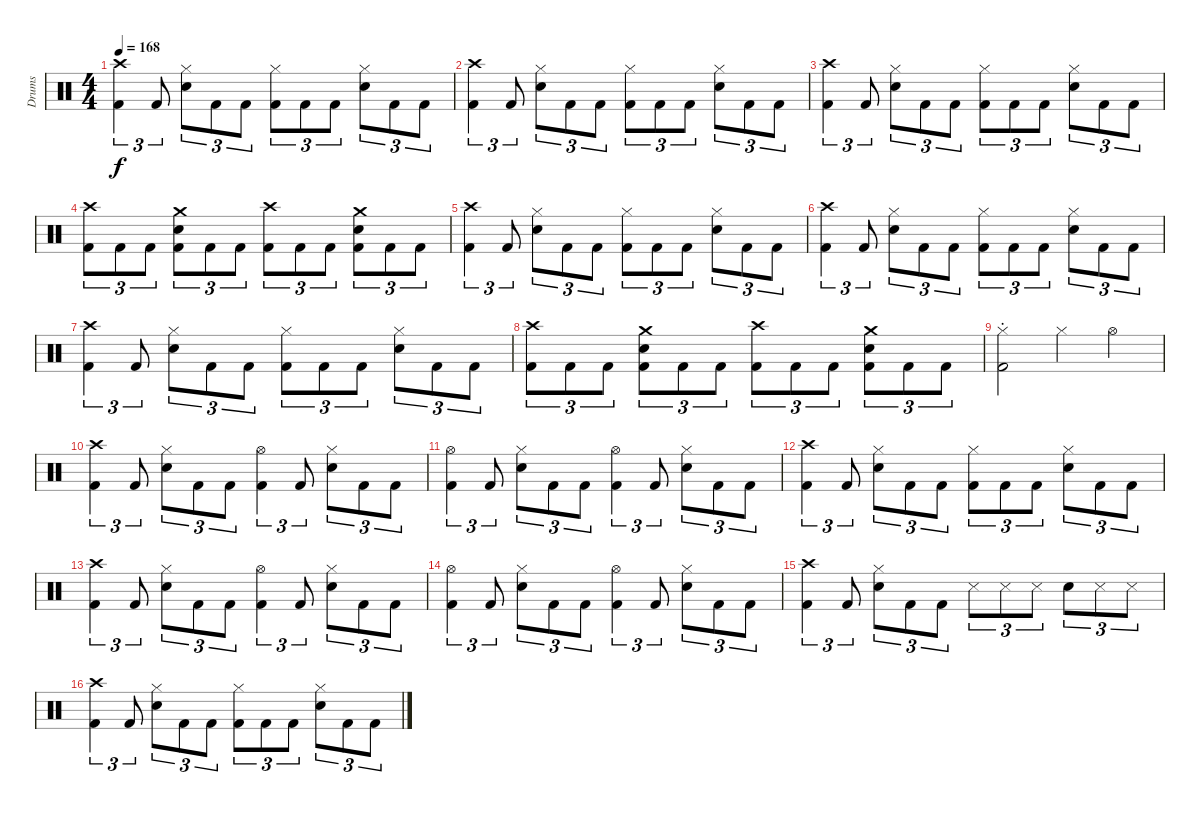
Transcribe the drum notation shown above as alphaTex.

\track ("Drums" "Drums") {instrument percussion}
\staff {score}
\articulation defaults
\ts (4 4)
\tempo 168
\clef neutral
\ks c
("Kick (hit) 2" "Crash high (hit)").4{tu (3 2) dy f} "Kick (hit) 2".8{tu (3 2)} ("Hi-Hat (closed)" "Electric Snare (hit)").8{tu (3 2)} "Kick (hit) 2".8{tu (3 2)} "Kick (hit) 2".8{tu (3 2)} ("Kick (hit) 2" "Hi-Hat (closed)").8{tu (3 2)} "Kick (hit) 2".8{tu (3 2)} "Kick (hit) 2".8{tu (3 2)} ("Hi-Hat (closed)" "Electric Snare (hit)").8{tu (3 2)} "Kick (hit) 2".8{tu (3 2)} "Kick (hit) 2".8{tu (3 2)} |
("Kick (hit) 2" "Crash high (hit)").4{tu (3 2)} "Kick (hit) 2".8{tu (3 2)} ("Hi-Hat (closed)" "Electric Snare (hit)").8{tu (3 2)} "Kick (hit) 2".8{tu (3 2)} "Kick (hit) 2".8{tu (3 2)} ("Kick (hit) 2" "Hi-Hat (closed)").8{tu (3 2)} "Kick (hit) 2".8{tu (3 2)} "Kick (hit) 2".8{tu (3 2)} ("Hi-Hat (closed)" "Electric Snare (hit)").8{tu (3 2)} "Kick (hit) 2".8{tu (3 2)} "Kick (hit) 2".8{tu (3 2)} |
("Kick (hit) 2" "Crash high (hit)").4{tu (3 2)} "Kick (hit) 2".8{tu (3 2)} ("Hi-Hat (closed)" "Electric Snare (hit)").8{tu (3 2)} "Kick (hit) 2".8{tu (3 2)} "Kick (hit) 2".8{tu (3 2)} ("Kick (hit) 2" "Hi-Hat (closed)").8{tu (3 2)} "Kick (hit) 2".8{tu (3 2)} "Kick (hit) 2".8{tu (3 2)} ("Hi-Hat (closed)" "Electric Snare (hit)").8{tu (3 2)} "Kick (hit) 2".8{tu (3 2)} "Kick (hit) 2".8{tu (3 2)} |
("Kick (hit) 2" "Crash high (hit)").8{tu (3 2)} "Kick (hit) 2".8{tu (3 2)} "Kick (hit) 2".8{tu (3 2)} ("Electric Snare (hit)" "Crash medium (hit)" "Kick (hit) 2").8{tu (3 2)} "Kick (hit) 2".8{tu (3 2)} "Kick (hit) 2".8{tu (3 2)} ("Kick (hit) 2" "Crash high (hit)").8{tu (3 2)} "Kick (hit) 2".8{tu (3 2)} "Kick (hit) 2".8{tu (3 2)} ("Electric Snare (hit)" "Crash medium (hit)" "Kick (hit) 2").8{tu (3 2)} "Kick (hit) 2".8{tu (3 2)} "Kick (hit) 2".8{tu (3 2)} |
("Kick (hit) 2" "Crash high (hit)").4{tu (3 2)} "Kick (hit) 2".8{tu (3 2)} ("Hi-Hat (closed)" "Electric Snare (hit)").8{tu (3 2)} "Kick (hit) 2".8{tu (3 2)} "Kick (hit) 2".8{tu (3 2)} ("Kick (hit) 2" "Hi-Hat (closed)").8{tu (3 2)} "Kick (hit) 2".8{tu (3 2)} "Kick (hit) 2".8{tu (3 2)} ("Hi-Hat (closed)" "Electric Snare (hit)").8{tu (3 2)} "Kick (hit) 2".8{tu (3 2)} "Kick (hit) 2".8{tu (3 2)} |
("Kick (hit) 2" "Crash high (hit)").4{tu (3 2)} "Kick (hit) 2".8{tu (3 2)} ("Hi-Hat (closed)" "Electric Snare (hit)").8{tu (3 2)} "Kick (hit) 2".8{tu (3 2)} "Kick (hit) 2".8{tu (3 2)} ("Kick (hit) 2" "Hi-Hat (closed)").8{tu (3 2)} "Kick (hit) 2".8{tu (3 2)} "Kick (hit) 2".8{tu (3 2)} ("Hi-Hat (closed)" "Electric Snare (hit)").8{tu (3 2)} "Kick (hit) 2".8{tu (3 2)} "Kick (hit) 2".8{tu (3 2)} |
("Kick (hit) 2" "Crash high (hit)").4{tu (3 2)} "Kick (hit) 2".8{tu (3 2)} ("Hi-Hat (closed)" "Electric Snare (hit)").8{tu (3 2)} "Kick (hit) 2".8{tu (3 2)} "Kick (hit) 2".8{tu (3 2)} ("Kick (hit) 2" "Hi-Hat (closed)").8{tu (3 2)} "Kick (hit) 2".8{tu (3 2)} "Kick (hit) 2".8{tu (3 2)} ("Hi-Hat (closed)" "Electric Snare (hit)").8{tu (3 2)} "Kick (hit) 2".8{tu (3 2)} "Kick (hit) 2".8{tu (3 2)} |
("Kick (hit) 2" "Crash high (hit)").8{tu (3 2)} "Kick (hit) 2".8{tu (3 2)} "Kick (hit) 2".8{tu (3 2)} ("Electric Snare (hit)" "Crash medium (hit)" "Kick (hit) 2").8{tu (3 2)} "Kick (hit) 2".8{tu (3 2)} "Kick (hit) 2".8{tu (3 2)} ("Kick (hit) 2" "Crash high (hit)").8{tu (3 2)} "Kick (hit) 2".8{tu (3 2)} "Kick (hit) 2".8{tu (3 2)} ("Electric Snare (hit)" "Crash medium (hit)" "Kick (hit) 2").8{tu (3 2)} "Kick (hit) 2".8{tu (3 2)} "Kick (hit) 2".8{tu (3 2)} |
("Kick (hit) 2" "Hi-Hat (closed)"{st}).2 "Hi-Hat (closed)".4{balance 4} "Hi-Hat (open)".4{balance 12} |
("Kick (hit) 2" "Crash high (hit)").4{tu (3 2)} "Kick (hit) 2".8{tu (3 2)} ("Hi-Hat (closed)" "Electric Snare (hit)").8{tu (3 2)} "Kick (hit) 2".8{tu (3 2)} "Kick (hit) 2".8{tu (3 2)} ("Kick (hit) 2" "Hi-Hat (open)").4{tu (3 2)} "Kick (hit) 2".8{tu (3 2)} ("Hi-Hat (closed)" "Electric Snare (hit)").8{tu (3 2)} "Kick (hit) 2".8{tu (3 2)} "Kick (hit) 2".8{tu (3 2)} |
("Kick (hit) 2" "Hi-Hat (open)").4{tu (3 2)} "Kick (hit) 2".8{tu (3 2)} ("Hi-Hat (closed)" "Electric Snare (hit)").8{tu (3 2)} "Kick (hit) 2".8{tu (3 2)} "Kick (hit) 2".8{tu (3 2)} ("Kick (hit) 2" "Hi-Hat (open)").4{tu (3 2)} "Kick (hit) 2".8{tu (3 2)} ("Hi-Hat (closed)" "Electric Snare (hit)").8{tu (3 2)} "Kick (hit) 2".8{tu (3 2)} "Kick (hit) 2".8{tu (3 2)} |
("Kick (hit) 2" "Crash high (hit)").4{tu (3 2)} "Kick (hit) 2".8{tu (3 2)} ("Hi-Hat (closed)" "Electric Snare (hit)").8{tu (3 2)} "Kick (hit) 2".8{tu (3 2)} "Kick (hit) 2".8{tu (3 2)} ("Kick (hit) 2" "Hi-Hat (closed)").8{tu (3 2)} "Kick (hit) 2".8{tu (3 2)} "Kick (hit) 2".8{tu (3 2)} ("Hi-Hat (closed)" "Electric Snare (hit)").8{tu (3 2)} "Kick (hit) 2".8{tu (3 2)} "Kick (hit) 2".8{tu (3 2)} |
("Kick (hit) 2" "Crash high (hit)").4{tu (3 2)} "Kick (hit) 2".8{tu (3 2)} ("Hi-Hat (closed)" "Electric Snare (hit)").8{tu (3 2)} "Kick (hit) 2".8{tu (3 2)} "Kick (hit) 2".8{tu (3 2)} ("Kick (hit) 2" "Hi-Hat (open)").4{tu (3 2)} "Kick (hit) 2".8{tu (3 2)} ("Hi-Hat (closed)" "Electric Snare (hit)").8{tu (3 2)} "Kick (hit) 2".8{tu (3 2)} "Kick (hit) 2".8{tu (3 2)} |
("Kick (hit) 2" "Hi-Hat (open)").4{tu (3 2)} "Kick (hit) 2".8{tu (3 2)} ("Hi-Hat (closed)" "Electric Snare (hit)").8{tu (3 2)} "Kick (hit) 2".8{tu (3 2)} "Kick (hit) 2".8{tu (3 2)} ("Kick (hit) 2" "Hi-Hat (open)").4{tu (3 2)} "Kick (hit) 2".8{tu (3 2)} ("Hi-Hat (closed)" "Electric Snare (hit)").8{tu (3 2)} "Kick (hit) 2".8{tu (3 2)} "Kick (hit) 2".8{tu (3 2)} |
("Kick (hit) 2" "Crash high (hit)").4{tu (3 2)} "Kick (hit) 2".8{tu (3 2)} ("Hi-Hat (closed)" "Electric Snare (hit)").8{tu (3 2)} "Kick (hit) 2".8{tu (3 2)} "Kick (hit) 2".8{tu (3 2)} "Metronome (hit)".8{tu (3 2)} "Metronome (hit)".8{tu (3 2)} "Metronome (hit)".8{tu (3 2)} "Electric Snare (hit)".8{tu (3 2)} "Metronome (hit)".8{tu (3 2)} "Metronome (hit)".8{tu (3 2)} |
("Kick (hit) 2" "Crash high (hit)").4{tu (3 2)} "Kick (hit) 2".8{tu (3 2)} ("Hi-Hat (closed)" "Electric Snare (hit)").8{tu (3 2)} "Kick (hit) 2".8{tu (3 2)} "Kick (hit) 2".8{tu (3 2)} ("Kick (hit) 2" "Hi-Hat (closed)").8{tu (3 2)} "Kick (hit) 2".8{tu (3 2)} "Kick (hit) 2".8{tu (3 2)} ("Hi-Hat (closed)" "Electric Snare (hit)").8{tu (3 2)} "Kick (hit) 2".8{tu (3 2)} "Kick (hit) 2".8{tu (3 2)}
